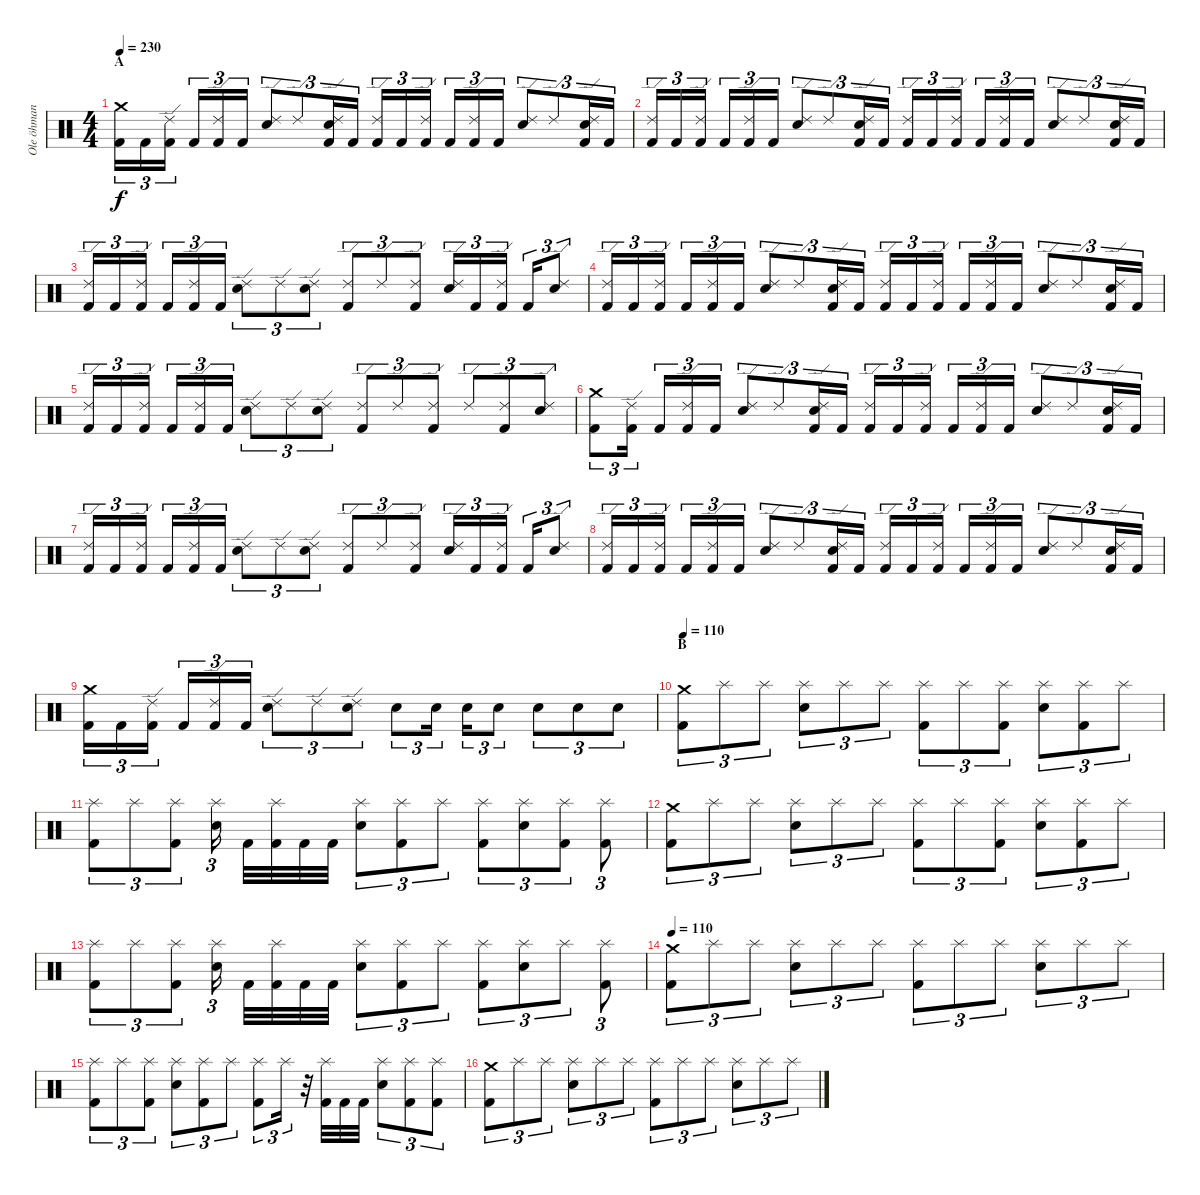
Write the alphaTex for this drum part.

\track ("Ole öhman" "Ole öhman") {instrument percussion}
\staff {score}
\articulation defaults
\ts (4 4)
\section ("" "A")
\tempo 230
\tempo 110
\tempo 230
\clef neutral
\ks c
("Crash medium (hit)" "Kick (hit) 2").16{tu (3 2) dy f volume 13} "Kick (hit) 2".16{tu (3 2)} ("Ride (edge) 2" "Kick (hit) 2").16{tu (3 2)} "Kick (hit) 2".16{tu (3 2)} ("Ride (edge) 2" "Kick (hit) 2").16{tu (3 2)} "Kick (hit) 2".16{tu (3 2)} ("Ride (edge) 2" "Electric Snare (hit)").8{tu (3 2)} "Ride (edge) 2".8{tu (3 2)} ("Ride (edge) 2" "Electric Snare (hit)" "Kick (hit) 2").16{tu (3 2)} "Kick (hit) 2".16{tu (3 2)} ("Ride (edge) 2" "Kick (hit) 2").16{tu (3 2)} "Kick (hit) 2".16{tu (3 2)} ("Ride (edge) 2" "Kick (hit) 2").16{tu (3 2)} "Kick (hit) 2".16{tu (3 2)} ("Ride (edge) 2" "Kick (hit) 2").16{tu (3 2)} "Kick (hit) 2".16{tu (3 2)} ("Ride (edge) 2" "Electric Snare (hit)").8{tu (3 2)} "Ride (edge) 2".8{tu (3 2)} ("Ride (edge) 2" "Electric Snare (hit)" "Kick (hit) 2").16{tu (3 2)} "Kick (hit) 2".16{tu (3 2)} |
("Ride (edge) 2" "Kick (hit) 2").16{tu (3 2)} "Kick (hit) 2".16{tu (3 2)} ("Ride (edge) 2" "Kick (hit) 2").16{tu (3 2)} "Kick (hit) 2".16{tu (3 2)} ("Ride (edge) 2" "Kick (hit) 2").16{tu (3 2)} "Kick (hit) 2".16{tu (3 2)} ("Ride (edge) 2" "Electric Snare (hit)").8{tu (3 2)} "Ride (edge) 2".8{tu (3 2)} ("Ride (edge) 2" "Electric Snare (hit)" "Kick (hit) 2").16{tu (3 2)} "Kick (hit) 2".16{tu (3 2)} ("Ride (edge) 2" "Kick (hit) 2").16{tu (3 2)} "Kick (hit) 2".16{tu (3 2)} ("Ride (edge) 2" "Kick (hit) 2").16{tu (3 2)} "Kick (hit) 2".16{tu (3 2)} ("Ride (edge) 2" "Kick (hit) 2").16{tu (3 2)} "Kick (hit) 2".16{tu (3 2)} ("Ride (edge) 2" "Electric Snare (hit)").8{tu (3 2)} "Ride (edge) 2".8{tu (3 2)} ("Ride (edge) 2" "Electric Snare (hit)" "Kick (hit) 2").16{tu (3 2)} "Kick (hit) 2".16{tu (3 2)} |
("Ride (edge) 2" "Kick (hit) 2").16{tu (3 2)} "Kick (hit) 2".16{tu (3 2)} ("Ride (edge) 2" "Kick (hit) 2").16{tu (3 2)} "Kick (hit) 2".16{tu (3 2)} ("Ride (edge) 2" "Kick (hit) 2").16{tu (3 2)} "Kick (hit) 2".16{tu (3 2)} ("Ride (edge) 2" "Electric Snare (hit)").8{tu (3 2)} "Ride (edge) 2".8{tu (3 2)} ("Ride (edge) 2" "Electric Snare (hit)").8{tu (3 2)} ("Ride (edge) 2" "Kick (hit) 2").8{tu (3 2)} "Ride (edge) 2".8{tu (3 2)} ("Ride (edge) 2" "Kick (hit) 2").8{tu (3 2)} ("Ride (edge) 2" "Electric Snare (hit)").16{tu (3 2)} "Kick (hit) 2".16{tu (3 2)} ("Ride (edge) 2" "Kick (hit) 2").16{tu (3 2)} "Kick (hit) 2".16{tu (3 2)} ("Ride (edge) 2" "Electric Snare (hit)").8{tu (3 2)} |
("Ride (edge) 2" "Kick (hit) 2").16{tu (3 2)} "Kick (hit) 2".16{tu (3 2)} ("Ride (edge) 2" "Kick (hit) 2").16{tu (3 2)} "Kick (hit) 2".16{tu (3 2)} ("Ride (edge) 2" "Kick (hit) 2").16{tu (3 2)} "Kick (hit) 2".16{tu (3 2)} ("Ride (edge) 2" "Electric Snare (hit)").8{tu (3 2)} "Ride (edge) 2".8{tu (3 2)} ("Ride (edge) 2" "Electric Snare (hit)" "Kick (hit) 2").16{tu (3 2)} "Kick (hit) 2".16{tu (3 2)} ("Ride (edge) 2" "Kick (hit) 2").16{tu (3 2)} "Kick (hit) 2".16{tu (3 2)} ("Ride (edge) 2" "Kick (hit) 2").16{tu (3 2)} "Kick (hit) 2".16{tu (3 2)} ("Ride (edge) 2" "Kick (hit) 2").16{tu (3 2)} "Kick (hit) 2".16{tu (3 2)} ("Ride (edge) 2" "Electric Snare (hit)").8{tu (3 2)} "Ride (edge) 2".8{tu (3 2)} ("Ride (edge) 2" "Electric Snare (hit)" "Kick (hit) 2").16{tu (3 2)} "Kick (hit) 2".16{tu (3 2)} |
("Ride (edge) 2" "Kick (hit) 2").16{tu (3 2)} "Kick (hit) 2".16{tu (3 2)} ("Ride (edge) 2" "Kick (hit) 2").16{tu (3 2)} "Kick (hit) 2".16{tu (3 2)} ("Ride (edge) 2" "Kick (hit) 2").16{tu (3 2)} "Kick (hit) 2".16{tu (3 2)} ("Ride (edge) 2" "Electric Snare (hit)").8{tu (3 2)} "Ride (edge) 2".8{tu (3 2)} ("Ride (edge) 2" "Electric Snare (hit)").8{tu (3 2)} ("Ride (edge) 2" "Kick (hit) 2").8{tu (3 2)} "Ride (edge) 2".8{tu (3 2)} ("Ride (edge) 2" "Kick (hit) 2").8{tu (3 2)} "Ride (edge) 2".8{tu (3 2)} ("Ride (edge) 2" "Kick (hit) 2").8{tu (3 2)} ("Ride (edge) 2" "Electric Snare (hit)").8{tu (3 2)} |
("Crash medium (hit)" "Kick (hit) 2").8{tu (3 2)} ("Ride (edge) 2" "Kick (hit) 2").16{tu (3 2)} "Kick (hit) 2".16{tu (3 2)} ("Ride (edge) 2" "Kick (hit) 2").16{tu (3 2)} "Kick (hit) 2".16{tu (3 2)} ("Ride (edge) 2" "Electric Snare (hit)").8{tu (3 2)} "Ride (edge) 2".8{tu (3 2)} ("Ride (edge) 2" "Electric Snare (hit)" "Kick (hit) 2").16{tu (3 2)} "Kick (hit) 2".16{tu (3 2)} ("Ride (edge) 2" "Kick (hit) 2").16{tu (3 2)} "Kick (hit) 2".16{tu (3 2)} ("Ride (edge) 2" "Kick (hit) 2").16{tu (3 2)} "Kick (hit) 2".16{tu (3 2)} ("Ride (edge) 2" "Kick (hit) 2").16{tu (3 2)} "Kick (hit) 2".16{tu (3 2)} ("Ride (edge) 2" "Electric Snare (hit)").8{tu (3 2)} "Ride (edge) 2".8{tu (3 2)} ("Ride (edge) 2" "Electric Snare (hit)" "Kick (hit) 2").16{tu (3 2)} "Kick (hit) 2".16{tu (3 2)} |
("Ride (edge) 2" "Kick (hit) 2").16{tu (3 2)} "Kick (hit) 2".16{tu (3 2)} ("Ride (edge) 2" "Kick (hit) 2").16{tu (3 2)} "Kick (hit) 2".16{tu (3 2)} ("Ride (edge) 2" "Kick (hit) 2").16{tu (3 2)} "Kick (hit) 2".16{tu (3 2)} ("Ride (edge) 2" "Electric Snare (hit)").8{tu (3 2)} "Ride (edge) 2".8{tu (3 2)} ("Ride (edge) 2" "Electric Snare (hit)").8{tu (3 2)} ("Ride (edge) 2" "Kick (hit) 2").8{tu (3 2)} "Ride (edge) 2".8{tu (3 2)} ("Ride (edge) 2" "Kick (hit) 2").8{tu (3 2)} ("Ride (edge) 2" "Electric Snare (hit)").16{tu (3 2)} "Kick (hit) 2".16{tu (3 2)} ("Ride (edge) 2" "Kick (hit) 2").16{tu (3 2)} "Kick (hit) 2".16{tu (3 2)} ("Ride (edge) 2" "Electric Snare (hit)").8{tu (3 2)} |
("Ride (edge) 2" "Kick (hit) 2").16{tu (3 2)} "Kick (hit) 2".16{tu (3 2)} ("Ride (edge) 2" "Kick (hit) 2").16{tu (3 2)} "Kick (hit) 2".16{tu (3 2)} ("Ride (edge) 2" "Kick (hit) 2").16{tu (3 2)} "Kick (hit) 2".16{tu (3 2)} ("Ride (edge) 2" "Electric Snare (hit)").8{tu (3 2)} "Ride (edge) 2".8{tu (3 2)} ("Ride (edge) 2" "Electric Snare (hit)" "Kick (hit) 2").16{tu (3 2)} "Kick (hit) 2".16{tu (3 2)} ("Ride (edge) 2" "Kick (hit) 2").16{tu (3 2)} "Kick (hit) 2".16{tu (3 2)} ("Ride (edge) 2" "Kick (hit) 2").16{tu (3 2)} "Kick (hit) 2".16{tu (3 2)} ("Ride (edge) 2" "Kick (hit) 2").16{tu (3 2)} "Kick (hit) 2".16{tu (3 2)} ("Ride (edge) 2" "Electric Snare (hit)").8{tu (3 2)} "Ride (edge) 2".8{tu (3 2)} ("Ride (edge) 2" "Electric Snare (hit)" "Kick (hit) 2").16{tu (3 2)} "Kick (hit) 2".16{tu (3 2)} |
("Crash medium (hit)" "Kick (hit) 2").16{tu (3 2)} "Kick (hit) 2".16{tu (3 2)} ("Ride (edge) 2" "Kick (hit) 2").16{tu (3 2)} "Kick (hit) 2".16{tu (3 2)} ("Ride (edge) 2" "Kick (hit) 2").16{tu (3 2)} "Kick (hit) 2".16{tu (3 2)} ("Ride (edge) 2" "Electric Snare (hit)").8{tu (3 2)} "Ride (edge) 2".8{tu (3 2)} ("Ride (edge) 2" "Electric Snare (hit)").8{tu (3 2)} "Electric Snare (hit)".8{tu (3 2)} "Electric Snare (hit)".16{tu (3 2)} "Electric Snare (hit)".16{tu (3 2)} "Electric Snare (hit)".8{tu (3 2)} "Electric Snare (hit)".8{tu (3 2)} "Electric Snare (hit)".8{tu (3 2)} "Electric Snare (hit)".8{tu (3 2)} |
\section ("" "B")
\tempo 110
("Crash medium (hit)" "Kick (hit) 2").8{tu (3 2)} "Splash (hit)".8{tu (3 2)} "Splash (hit)".8{tu (3 2)} ("Splash (hit)" "Electric Snare (hit)").8{tu (3 2)} "Splash (hit)".8{tu (3 2)} "Splash (hit)".8{tu (3 2)} ("Splash (hit)" "Kick (hit) 2").8{tu (3 2)} "Splash (hit)".8{tu (3 2)} ("Splash (hit)" "Kick (hit) 2").8{tu (3 2)} ("Splash (hit)" "Electric Snare (hit)").8{tu (3 2)} ("Splash (hit)" "Kick (hit) 2").8{tu (3 2)} "Splash (hit)".8{tu (3 2)} |
("Splash (hit)" "Kick (hit) 2").8{tu (3 2)} "Splash (hit)".8{tu (3 2)} ("Splash (hit)" "Kick (hit) 2").8{tu (3 2)} ("Splash (hit)" "Electric Snare (hit)").16{tu (3 2)} "Kick (hit) 2".32 ("Splash (hit)" "Kick (hit) 2").32 "Kick (hit) 2".32 "Kick (hit) 2".32 ("Splash (hit)" "Electric Snare (hit)").8{tu (3 2)} ("Splash (hit)" "Kick (hit) 2").8{tu (3 2)} "Splash (hit)".8{tu (3 2)} ("Splash (hit)" "Kick (hit) 2").8{tu (3 2)} ("Splash (hit)" "Electric Snare (hit)").8{tu (3 2)} ("Splash (hit)" "Kick (hit) 2").8{tu (3 2)} ("Splash (hit)" "Kick (hit) 2").8{tu (3 2)} |
("Crash medium (hit)" "Kick (hit) 2").8{tu (3 2)} "Splash (hit)".8{tu (3 2)} "Splash (hit)".8{tu (3 2)} ("Splash (hit)" "Electric Snare (hit)").8{tu (3 2)} "Splash (hit)".8{tu (3 2)} "Splash (hit)".8{tu (3 2)} ("Splash (hit)" "Kick (hit) 2").8{tu (3 2)} "Splash (hit)".8{tu (3 2)} ("Splash (hit)" "Kick (hit) 2").8{tu (3 2)} ("Splash (hit)" "Electric Snare (hit)").8{tu (3 2)} ("Splash (hit)" "Kick (hit) 2").8{tu (3 2)} "Splash (hit)".8{tu (3 2)} |
("Splash (hit)" "Kick (hit) 2").8{tu (3 2)} "Splash (hit)".8{tu (3 2)} ("Splash (hit)" "Kick (hit) 2").8{tu (3 2)} ("Splash (hit)" "Electric Snare (hit)").16{tu (3 2)} "Kick (hit) 2".32 ("Splash (hit)" "Kick (hit) 2").32 "Kick (hit) 2".32 "Kick (hit) 2".32 ("Splash (hit)" "Electric Snare (hit)").8{tu (3 2)} ("Splash (hit)" "Kick (hit) 2").8{tu (3 2)} "Splash (hit)".8{tu (3 2)} ("Splash (hit)" "Kick (hit) 2").8{tu (3 2)} ("Splash (hit)" "Electric Snare (hit)").8{tu (3 2)} "Splash (hit)".8{tu (3 2)} ("Splash (hit)" "Kick (hit) 2").8{tu (3 2)} |
\tempo 110
("Crash medium (hit)" "Kick (hit) 2").8{tu (3 2)} "Splash (hit)".8{tu (3 2)} "Splash (hit)".8{tu (3 2)} ("Splash (hit)" "Electric Snare (hit)").8{tu (3 2)} "Splash (hit)".8{tu (3 2)} "Splash (hit)".8{tu (3 2)} ("Splash (hit)" "Kick (hit) 2").8{tu (3 2)} "Splash (hit)".8{tu (3 2)} "Splash (hit)".8{tu (3 2)} ("Splash (hit)" "Electric Snare (hit)").8{tu (3 2)} "Splash (hit)".8{tu (3 2)} "Splash (hit)".8{tu (3 2)} |
("Splash (hit)" "Kick (hit) 2").8{tu (3 2)} "Splash (hit)".8{tu (3 2)} ("Splash (hit)" "Kick (hit) 2").8{tu (3 2)} ("Splash (hit)" "Electric Snare (hit)").8{tu (3 2)} ("Splash (hit)" "Kick (hit) 2").8{tu (3 2)} "Splash (hit)".8{tu (3 2)} ("Splash (hit)" "Kick (hit) 2").8{tu (3 2)} "Splash (hit)".16{tu (3 2)} r.32 ("Splash (hit)" "Kick (hit) 2").32 "Kick (hit) 2".32 "Kick (hit) 2".32 ("Splash (hit)" "Electric Snare (hit)").8{tu (3 2)} ("Splash (hit)" "Kick (hit) 2").8{tu (3 2)} ("Splash (hit)" "Kick (hit) 2").8{tu (3 2)} |
("Crash medium (hit)" "Kick (hit) 2").8{tu (3 2)} "Splash (hit)".8{tu (3 2)} "Splash (hit)".8{tu (3 2)} ("Splash (hit)" "Electric Snare (hit)").8{tu (3 2)} "Splash (hit)".8{tu (3 2)} "Splash (hit)".8{tu (3 2)} ("Splash (hit)" "Kick (hit) 2").8{tu (3 2)} "Splash (hit)".8{tu (3 2)} "Splash (hit)".8{tu (3 2)} ("Splash (hit)" "Electric Snare (hit)").8{tu (3 2)} "Splash (hit)".8{tu (3 2)} "Splash (hit)".8{tu (3 2)}
